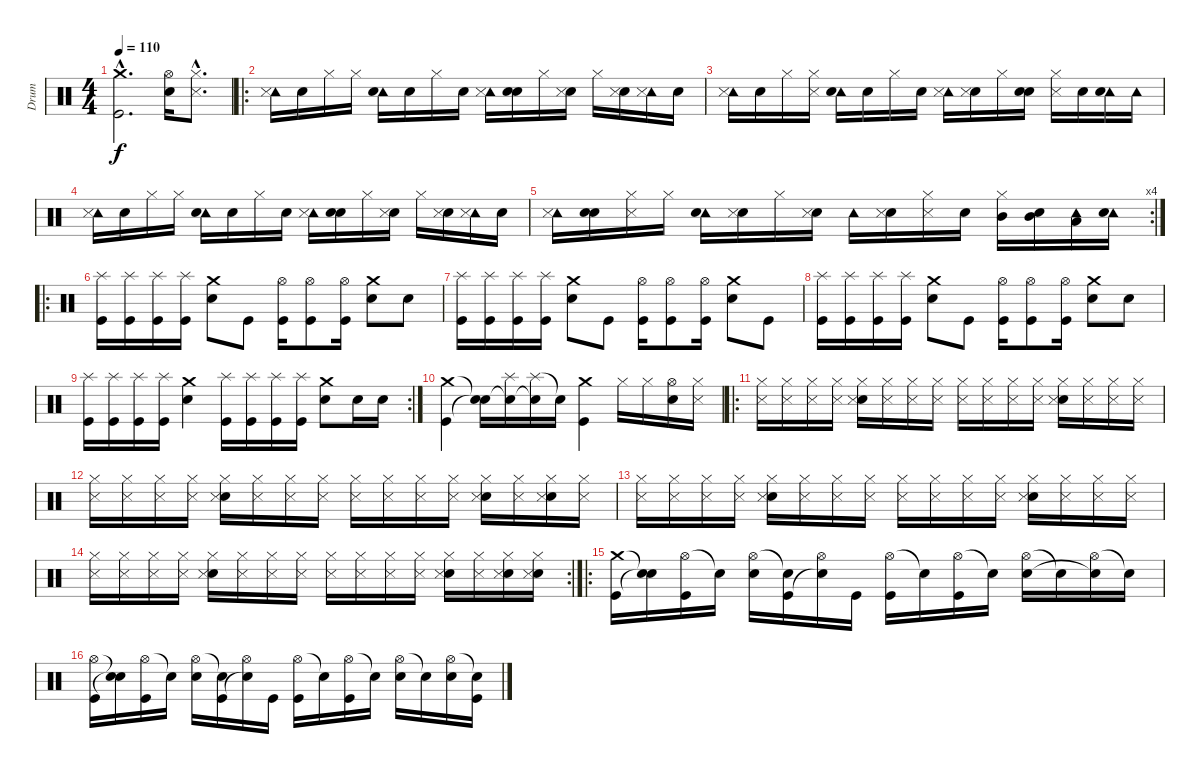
\track ("Drum" "Drum") {instrument percussion}
\staff {score}
\articulation defaults
\ts (4 4)
\tempo 110
\clef neutral
\ks c
("Crash medium (hit)"{hac} "Kick (hit)"{hac}).2{d dy f} ("Hi-Hat (open)" "Metronome (bell)").16 ("Hi-Hat (closed)"{hac} "Metronome (hit)"{hac}).8{d} |
\ro
("Tambourine (hit)" "Metronome (hit)").16 "Snare (hit)".16 "Hi-Hat (closed)".16 "Hi-Hat (closed)".16 ("Tambourine (hit)" "Metronome (bell)").16 "Snare (hit)".16 "Hi-Hat (closed)".16 "Snare (hit)".16 ("Tambourine (hit)" "Metronome (hit)").16 ("Snare (hit)" "Metronome (bell)").16 "Hi-Hat (closed)".16 ("Snare (hit)" "Metronome (hit)").16 "Hi-Hat (closed)".16 ("Snare (hit)" "Metronome (hit)").16 ("Tambourine (hit)" "Metronome (hit)").16 "Snare (hit)".16 |
("Tambourine (hit)" "Metronome (hit)").16 "Snare (hit)".16 "Hi-Hat (closed)".16 ("Hi-Hat (closed)" "Metronome (hit)").16 ("Tambourine (hit)" "Metronome (bell)").16 "Snare (hit)".16 "Hi-Hat (closed)".16 "Snare (hit)".16 ("Tambourine (hit)" "Metronome (hit)").16 ("Snare (hit)" "Metronome (hit)").16 "Hi-Hat (closed)".16 ("Snare (hit)" "Metronome (bell)").16 ("Hi-Hat (closed)" "Metronome (hit)").16 "Snare (hit)".16 ("Tambourine (hit)" "Metronome (bell)").16 "Tambourine (hit)".16 |
("Tambourine (hit)" "Metronome (hit)").16 "Snare (hit)".16 "Hi-Hat (closed)".16 "Hi-Hat (closed)".16 ("Tambourine (hit)" "Metronome (bell)").16 "Snare (hit)".16 "Hi-Hat (closed)".16 "Snare (hit)".16 ("Tambourine (hit)" "Metronome (hit)").16 ("Snare (hit)" "Metronome (bell)").16 "Hi-Hat (closed)".16 ("Snare (hit)" "Metronome (hit)").16 "Hi-Hat (closed)".16 ("Snare (hit)" "Metronome (hit)").16 ("Tambourine (hit)" "Metronome (hit)").16 "Snare (hit)".16 |
\rc 4
("Tambourine (hit)" "Metronome (hit)").16 ("Snare (hit)" "Metronome (bell)").16 ("Hi-Hat (closed)" "Metronome (hit)").16 "Hi-Hat (closed)".16 ("Tambourine (hit)" "Metronome (bell)").16 ("Snare (hit)" "Metronome (hit)").16 "Hi-Hat (closed)".16 ("Snare (hit)" "Metronome (hit)").16 "Tambourine (hit)".16 ("Snare (hit)" "Metronome (hit)").16 ("Hi-Hat (closed)" "Metronome (hit)").16 "Snare (hit)".16 ("Hi-Hat (closed)" "Mid Tom (hit)").16 ("Snare (hit)" "Mid Tom (hit)").16 ("Tambourine (hit)" "Low Floor Tom (hit)").16 ("Tambourine (hit)" "Metronome (bell)").16 |
\ro
("Splash (hit)" "Kick (hit)").16 ("Splash (hit)" "Kick (hit)").16 ("Splash (hit)" "Kick (hit)").16 ("Splash (hit)" "Kick (hit)").16 ("Crash medium (hit)" "Snare (hit) 2").8 "Kick (hit)".8 ("Hi-Hat (open)" "Kick (hit)").16 ("Hi-Hat (open)" "Kick (hit)").8 ("Hi-Hat (open)" "Kick (hit)").16 ("Crash medium (hit)" "Snare (hit) 2").8 "Snare (hit) 2".8 |
("Splash (hit)" "Kick (hit)").16 ("Splash (hit)" "Kick (hit)").16 ("Splash (hit)" "Kick (hit)").16 ("Splash (hit)" "Kick (hit)").16 ("Crash medium (hit)" "Snare (hit) 2").8 "Kick (hit)".8 ("Hi-Hat (open)" "Kick (hit)").16 ("Hi-Hat (open)" "Kick (hit)").8 ("Hi-Hat (open)" "Kick (hit)").16 ("Crash medium (hit)" "Snare (hit) 2").8 "Kick (hit)".8 |
("Splash (hit)" "Kick (hit)").16 ("Splash (hit)" "Kick (hit)").16 ("Splash (hit)" "Kick (hit)").16 ("Splash (hit)" "Kick (hit)").16 ("Crash medium (hit)" "Snare (hit) 2").8 "Kick (hit)".8 ("Hi-Hat (open)" "Kick (hit)").16 ("Hi-Hat (open)" "Kick (hit)").8 ("Hi-Hat (open)" "Kick (hit)").16 ("Crash medium (hit)" "Snare (hit) 2").8 "Snare (hit) 2".8 |
\rc 2
("Splash (hit)" "Kick (hit)").16 ("Splash (hit)" "Kick (hit)").16 ("Splash (hit)" "Kick (hit)").16 ("Splash (hit)" "Kick (hit)").16 ("Crash medium (hit)" "Snare (hit) 2").4 ("Splash (hit)" "Kick (hit)").16 ("Splash (hit)" "Kick (hit)").16 ("Splash (hit)" "Kick (hit)").16 ("Splash (hit)" "Kick (hit)").16 ("Crash medium (hit)" "Snare (hit) 2").8 "Snare (hit) 2".16 "Snare (hit) 2".16 |
("Crash medium (hit)" "Kick (hit)").4 ("Snare (hit)"{t} "Snare (hit)"{t}).16 ("Splash (hit)" "Snare (hit)"{t}).16 ("Splash (hit)" "Snare (hit)"{t}).16 "Snare (hit)"{t}.16 ("Crash medium (hit)" "Kick (hit)").4 "Hi-Hat (closed)".16 "Hi-Hat (closed)".16 ("Hi-Hat (open)" "Metronome (bell)").16 ("Hi-Hat (closed)" "Metronome (hit)").16 |
\ro
("Hi-Hat (closed)" "Metronome (hit)").16 ("Hi-Hat (closed)" "Metronome (hit)").16 ("Hi-Hat (closed)" "Metronome (hit)").16 ("Hi-Hat (closed)" "Metronome (hit)").16 ("Hi-Hat (closed)" "Metronome (bell)" "Metronome (hit)").16 ("Hi-Hat (closed)" "Metronome (hit)").16 ("Hi-Hat (closed)" "Metronome (hit)").16 ("Hi-Hat (closed)" "Metronome (hit)").16 ("Hi-Hat (closed)" "Metronome (hit)").16 ("Hi-Hat (closed)" "Metronome (hit)").16 ("Hi-Hat (closed)" "Metronome (hit)").16 ("Hi-Hat (closed)" "Metronome (hit)").16 ("Hi-Hat (closed)" "Metronome (bell)" "Metronome (hit)").16 ("Hi-Hat (closed)" "Metronome (hit)").16 ("Hi-Hat (closed)" "Metronome (hit)").16 ("Hi-Hat (closed)" "Metronome (hit)").16 |
("Hi-Hat (closed)" "Metronome (hit)").16 ("Hi-Hat (closed)" "Metronome (hit)").16 ("Hi-Hat (closed)" "Metronome (hit)").16 ("Hi-Hat (closed)" "Metronome (hit)").16 ("Hi-Hat (closed)" "Metronome (bell)" "Metronome (hit)").16 ("Hi-Hat (closed)" "Metronome (hit)").16 ("Hi-Hat (closed)" "Metronome (hit)").16 ("Hi-Hat (closed)" "Metronome (hit)").16 ("Hi-Hat (closed)" "Metronome (hit)").16 ("Hi-Hat (closed)" "Metronome (hit)").16 ("Hi-Hat (closed)" "Metronome (hit)").16 ("Hi-Hat (closed)" "Metronome (hit)").16 ("Hi-Hat (closed)" "Metronome (bell)" "Metronome (hit)").16 ("Hi-Hat (closed)" "Metronome (hit)").16 ("Hi-Hat (closed)" "Metronome (bell)" "Metronome (hit)").16 ("Hi-Hat (closed)" "Metronome (hit)").16 |
("Hi-Hat (closed)" "Metronome (hit)").16 ("Hi-Hat (closed)" "Metronome (hit)").16 ("Hi-Hat (closed)" "Metronome (hit)").16 ("Hi-Hat (closed)" "Metronome (hit)").16 ("Hi-Hat (closed)" "Metronome (bell)" "Metronome (hit)").16 ("Hi-Hat (closed)" "Metronome (hit)").16 ("Hi-Hat (closed)" "Metronome (hit)").16 ("Hi-Hat (closed)" "Metronome (hit)").16 ("Hi-Hat (closed)" "Metronome (hit)").16 ("Hi-Hat (closed)" "Metronome (hit)").16 ("Hi-Hat (closed)" "Metronome (hit)").16 ("Hi-Hat (closed)" "Metronome (hit)").16 ("Hi-Hat (closed)" "Metronome (bell)" "Metronome (hit)").16 ("Hi-Hat (closed)" "Metronome (hit)").16 ("Hi-Hat (closed)" "Metronome (hit)").16 ("Hi-Hat (closed)" "Metronome (hit)").16 |
\rc 2
("Hi-Hat (closed)" "Metronome (hit)").16 ("Hi-Hat (closed)" "Metronome (hit)").16 ("Hi-Hat (closed)" "Metronome (hit)").16 ("Hi-Hat (closed)" "Metronome (hit)").16 ("Hi-Hat (closed)" "Metronome (bell)" "Metronome (hit)").16 ("Hi-Hat (closed)" "Metronome (hit)").16 ("Hi-Hat (closed)" "Metronome (hit)").16 ("Hi-Hat (closed)" "Metronome (hit)").16 ("Hi-Hat (closed)" "Metronome (hit)").16 ("Hi-Hat (closed)" "Metronome (hit)").16 ("Hi-Hat (closed)" "Metronome (hit)").16 ("Hi-Hat (closed)" "Metronome (hit)").16 ("Hi-Hat (closed)" "Metronome (bell)" "Metronome (hit)").16 ("Hi-Hat (closed)" "Metronome (hit)").16 ("Hi-Hat (closed)" "Metronome (bell)" "Metronome (hit)").16 ("Hi-Hat (closed)" "Metronome (bell)" "Metronome (hit)").16 |
\ro
("Crash medium (hit)" "Kick (hit)").16 ("Snare (hit)"{t} "Snare (hit)"{t}).16 ("Hi-Hat (open)" "Kick (hit)").16 "Snare (hit)"{t}.16 ("Hi-Hat (open)" "Snare (hit) 2").16 ("Snare (hit)"{t} "Kick (hit)").16 ("Hi-Hat (open)" "Snare (hit)"{t}).16 "Kick (hit)".16 ("Hi-Hat (open)" "Kick (hit)").16 "Snare (hit)"{t}.16 ("Hi-Hat (open)" "Kick (hit)").16 "Snare (hit)"{t}.16 ("Hi-Hat (open)" "Snare (hit) 2").16 "Snare (hit)"{t}.16 ("Hi-Hat (open)" "Snare (hit)"{t}).16 "Snare (hit)"{t}.16 |
("Hi-Hat (open)" "Kick (hit)").16 ("Snare (hit)"{t} "Snare (hit)"{t}).16 ("Hi-Hat (open)" "Kick (hit)").16 "Snare (hit)"{t}.16 ("Hi-Hat (open)" "Snare (hit) 2").16 ("Snare (hit)"{t} "Kick (hit)").16 ("Hi-Hat (open)" "Snare (hit)"{t}).16 "Kick (hit)".16 ("Hi-Hat (open)" "Kick (hit)").16 "Snare (hit)"{t}.16 ("Hi-Hat (open)" "Kick (hit)").16 "Snare (hit)"{t}.16 ("Hi-Hat (open)" "Snare (hit) 2").16 "Snare (hit)"{t}.16 ("Hi-Hat (open)" "Snare (hit) 2").16 ("Snare (hit)"{t} "Kick (hit)").16
